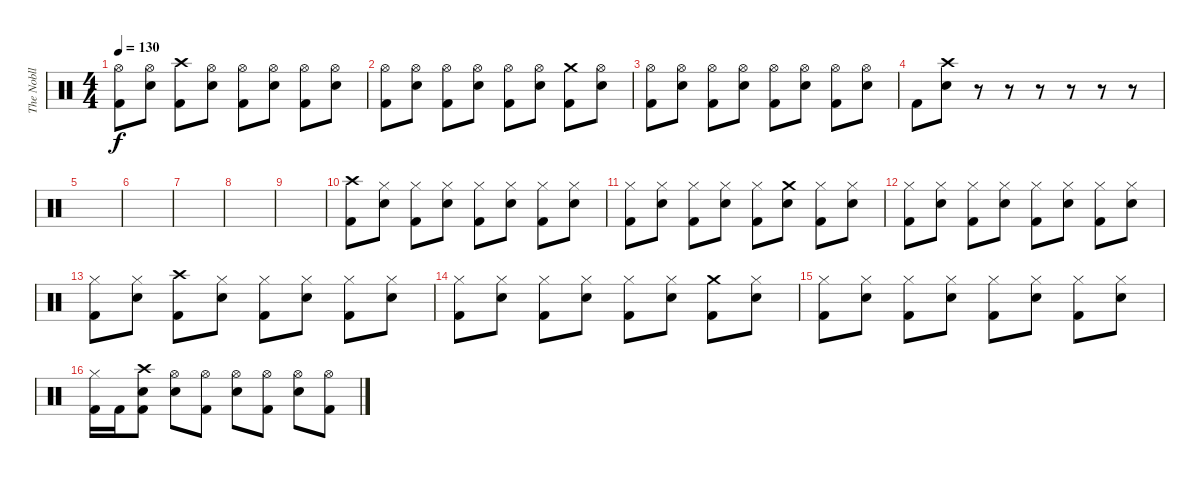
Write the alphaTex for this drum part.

\track ("The Nobll" "The Nobll") {instrument percussion}
\staff {score}
\articulation defaults
\ts (4 4)
\tempo 130
\clef neutral
\ks c
("Hi-Hat (open)" "Kick (hit) 2").8{dy f} ("Hi-Hat (open)" "Snare (hit) 2").8 ("Crash high (hit)" "Kick (hit) 2").8 ("Hi-Hat (open)" "Snare (hit) 2").8 ("Hi-Hat (open)" "Kick (hit) 2").8 ("Hi-Hat (open)" "Snare (hit) 2").8 ("Hi-Hat (open)" "Kick (hit) 2").8 ("Hi-Hat (open)" "Snare (hit) 2").8 |
("Hi-Hat (open)" "Kick (hit) 2").8 ("Hi-Hat (open)" "Snare (hit) 2").8 ("Hi-Hat (open)" "Kick (hit) 2").8 ("Hi-Hat (open)" "Snare (hit) 2").8 ("Hi-Hat (open)" "Kick (hit) 2").8 ("Hi-Hat (open)" "Snare (hit) 2").8 ("Crash medium (hit)" "Kick (hit) 2").8 ("Hi-Hat (open)" "Snare (hit) 2").8 |
("Hi-Hat (open)" "Kick (hit) 2").8 ("Hi-Hat (open)" "Snare (hit) 2").8 ("Hi-Hat (open)" "Kick (hit) 2").8 ("Hi-Hat (open)" "Snare (hit) 2").8 ("Hi-Hat (open)" "Kick (hit) 2").8 ("Hi-Hat (open)" "Snare (hit) 2").8 ("Hi-Hat (open)" "Kick (hit) 2").8 ("Hi-Hat (open)" "Snare (hit) 2").8 |
"Kick (hit) 2".8 ("Crash high (hit)" "Snare (hit) 2").8 r.8 r.8 r.8 r.8 r.8 r.8 |
|
|
|
|
|
("Crash high (hit)" "Kick (hit) 2").8 ("Hi-Hat (closed)" "Snare (hit) 2").8 ("Hi-Hat (closed)" "Kick (hit) 2").8 ("Hi-Hat (closed)" "Snare (hit) 2").8 ("Hi-Hat (closed)" "Kick (hit) 2").8 ("Hi-Hat (closed)" "Snare (hit) 2").8 ("Hi-Hat (closed)" "Kick (hit) 2").8 ("Hi-Hat (closed)" "Snare (hit) 2").8 |
("Hi-Hat (closed)" "Kick (hit) 2").8 ("Hi-Hat (closed)" "Snare (hit) 2").8 ("Hi-Hat (closed)" "Kick (hit) 2").8 ("Hi-Hat (closed)" "Snare (hit) 2").8 ("Hi-Hat (closed)" "Kick (hit) 2").8 ("Crash medium (hit)" "Snare (hit) 2").8 ("Hi-Hat (closed)" "Kick (hit) 2").8 ("Hi-Hat (closed)" "Snare (hit) 2").8 |
("Hi-Hat (closed)" "Kick (hit) 2").8 ("Hi-Hat (closed)" "Snare (hit) 2").8 ("Hi-Hat (closed)" "Kick (hit) 2").8 ("Hi-Hat (closed)" "Snare (hit) 2").8 ("Hi-Hat (closed)" "Kick (hit) 2").8 ("Hi-Hat (closed)" "Snare (hit) 2").8 ("Hi-Hat (closed)" "Kick (hit) 2").8 ("Hi-Hat (closed)" "Snare (hit) 2").8 |
("Hi-Hat (closed)" "Kick (hit) 2").8 ("Hi-Hat (closed)" "Snare (hit) 2").8 ("Crash high (hit)" "Kick (hit) 2").8 ("Hi-Hat (closed)" "Snare (hit) 2").8 ("Hi-Hat (closed)" "Kick (hit) 2").8 ("Hi-Hat (closed)" "Snare (hit) 2").8 ("Hi-Hat (closed)" "Kick (hit) 2").8 ("Hi-Hat (closed)" "Snare (hit) 2").8 |
("Hi-Hat (closed)" "Kick (hit) 2").8 ("Hi-Hat (closed)" "Snare (hit) 2").8 ("Hi-Hat (closed)" "Kick (hit) 2").8 ("Hi-Hat (closed)" "Snare (hit) 2").8 ("Hi-Hat (closed)" "Kick (hit) 2").8 ("Hi-Hat (closed)" "Snare (hit) 2").8 ("Crash medium (hit)" "Kick (hit) 2").8 ("Hi-Hat (closed)" "Snare (hit) 2").8 |
("Hi-Hat (closed)" "Kick (hit) 2").8 ("Hi-Hat (closed)" "Snare (hit) 2").8 ("Hi-Hat (closed)" "Kick (hit) 2").8 ("Hi-Hat (closed)" "Snare (hit) 2").8 ("Hi-Hat (closed)" "Kick (hit) 2").8 ("Hi-Hat (closed)" "Snare (hit) 2").8 ("Hi-Hat (closed)" "Kick (hit) 2").8 ("Hi-Hat (closed)" "Snare (hit) 2").8 |
("Hi-Hat (closed)" "Kick (hit) 2").16 "Kick (hit) 2".16 ("Crash high (hit)" "Snare (hit) 2" "Kick (hit) 2").8 ("Hi-Hat (open)" "Snare (hit) 2").8 ("Hi-Hat (open)" "Kick (hit) 2").8 ("Hi-Hat (open)" "Snare (hit) 2").8 ("Hi-Hat (open)" "Kick (hit) 2").8 ("Hi-Hat (open)" "Snare (hit) 2").8 ("Hi-Hat (open)" "Kick (hit) 2").8
